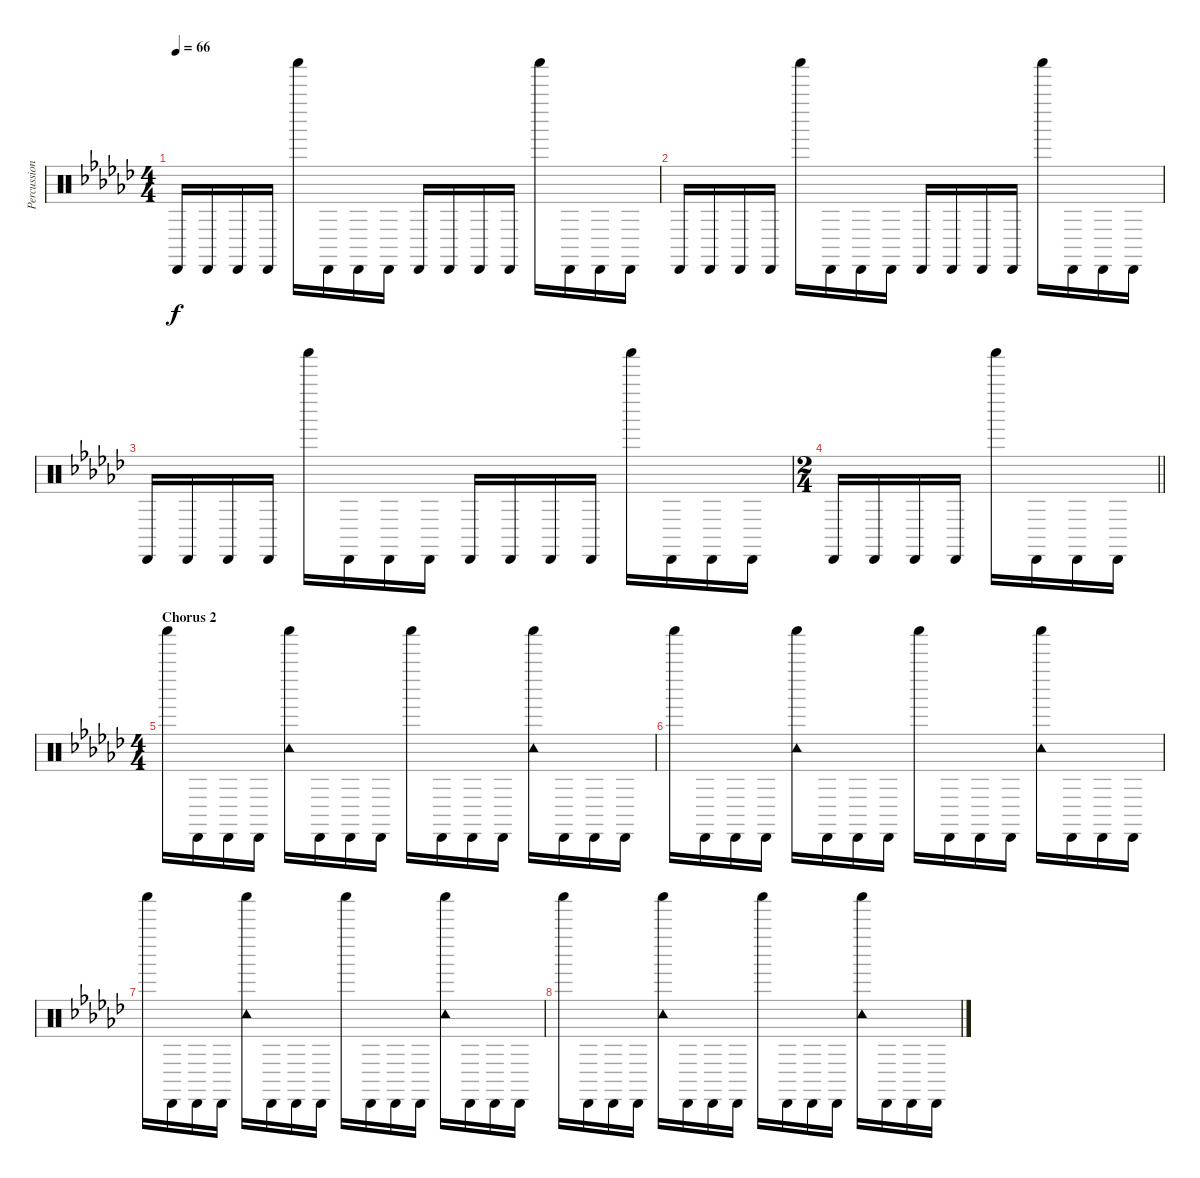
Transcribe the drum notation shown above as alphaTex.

\track ("Percussion" "Percussion") {instrument percussion}
\staff {score}
\articulation defaults
\ts (4 4)
\tempo 66
\clef neutral
\ks gb "Cabasa (hit)".16{dy f} "Cabasa (hit)".16 "Cabasa (hit)".16 "Cabasa (hit)".16 "Shaker (hit)".16 "Cabasa (hit)".16 "Cabasa (hit)".16 "Cabasa (hit)".16 "Cabasa (hit)".16 "Cabasa (hit)".16 "Cabasa (hit)".16 "Cabasa (hit)".16 "Shaker (hit)".16 "Cabasa (hit)".16 "Cabasa (hit)".16 "Cabasa (hit)".16
|
"Cabasa (hit)".16 "Cabasa (hit)".16 "Cabasa (hit)".16 "Cabasa (hit)".16 "Shaker (hit)".16 "Cabasa (hit)".16 "Cabasa (hit)".16 "Cabasa (hit)".16 "Cabasa (hit)".16 "Cabasa (hit)".16 "Cabasa (hit)".16 "Cabasa (hit)".16 "Shaker (hit)".16 "Cabasa (hit)".16 "Cabasa (hit)".16 "Cabasa (hit)".16 |
"Cabasa (hit)".16 "Cabasa (hit)".16 "Cabasa (hit)".16 "Cabasa (hit)".16 "Shaker (hit)".16 "Cabasa (hit)".16 "Cabasa (hit)".16 "Cabasa (hit)".16 "Cabasa (hit)".16 "Cabasa (hit)".16 "Cabasa (hit)".16 "Cabasa (hit)".16 "Shaker (hit)".16 "Cabasa (hit)".16 "Cabasa (hit)".16 "Cabasa (hit)".16 |
\ts (2 4)
\barLineRight lightlight "Cabasa (hit)".16 "Cabasa (hit)".16 "Cabasa (hit)".16 "Cabasa (hit)".16 "Shaker (hit)".16 "Cabasa (hit)".16 "Cabasa (hit)".16 "Cabasa (hit)".16
|
\ts (4 4)
\section ("" "Chorus 2")
"Shaker (hit)".16 "Cabasa (hit)".16 "Cabasa (hit)".16 "Cabasa (hit)".16 ("Shaker (hit)" "Tambourine (hit)").16 "Cabasa (hit)".16 "Cabasa (hit)".16 "Cabasa (hit)".16 "Shaker (hit)".16 "Cabasa (hit)".16 "Cabasa (hit)".16 "Cabasa (hit)".16 ("Shaker (hit)" "Tambourine (hit)").16 "Cabasa (hit)".16 "Cabasa (hit)".16 "Cabasa (hit)".16 |
"Shaker (hit)".16 "Cabasa (hit)".16 "Cabasa (hit)".16 "Cabasa (hit)".16 ("Shaker (hit)" "Tambourine (hit)").16 "Cabasa (hit)".16 "Cabasa (hit)".16 "Cabasa (hit)".16 "Shaker (hit)".16 "Cabasa (hit)".16 "Cabasa (hit)".16 "Cabasa (hit)".16 ("Shaker (hit)" "Tambourine (hit)").16 "Cabasa (hit)".16 "Cabasa (hit)".16 "Cabasa (hit)".16 |
"Shaker (hit)".16 "Cabasa (hit)".16 "Cabasa (hit)".16 "Cabasa (hit)".16 ("Shaker (hit)" "Tambourine (hit)").16 "Cabasa (hit)".16 "Cabasa (hit)".16 "Cabasa (hit)".16 "Shaker (hit)".16 "Cabasa (hit)".16 "Cabasa (hit)".16 "Cabasa (hit)".16 ("Shaker (hit)" "Tambourine (hit)").16 "Cabasa (hit)".16 "Cabasa (hit)".16 "Cabasa (hit)".16 |
"Shaker (hit)".16 "Cabasa (hit)".16 "Cabasa (hit)".16 "Cabasa (hit)".16 ("Shaker (hit)" "Tambourine (hit)").16 "Cabasa (hit)".16 "Cabasa (hit)".16 "Cabasa (hit)".16 "Shaker (hit)".16 "Cabasa (hit)".16 "Cabasa (hit)".16 "Cabasa (hit)".16 ("Shaker (hit)" "Tambourine (hit)").16 "Cabasa (hit)".16 "Cabasa (hit)".16 "Cabasa (hit)".16
